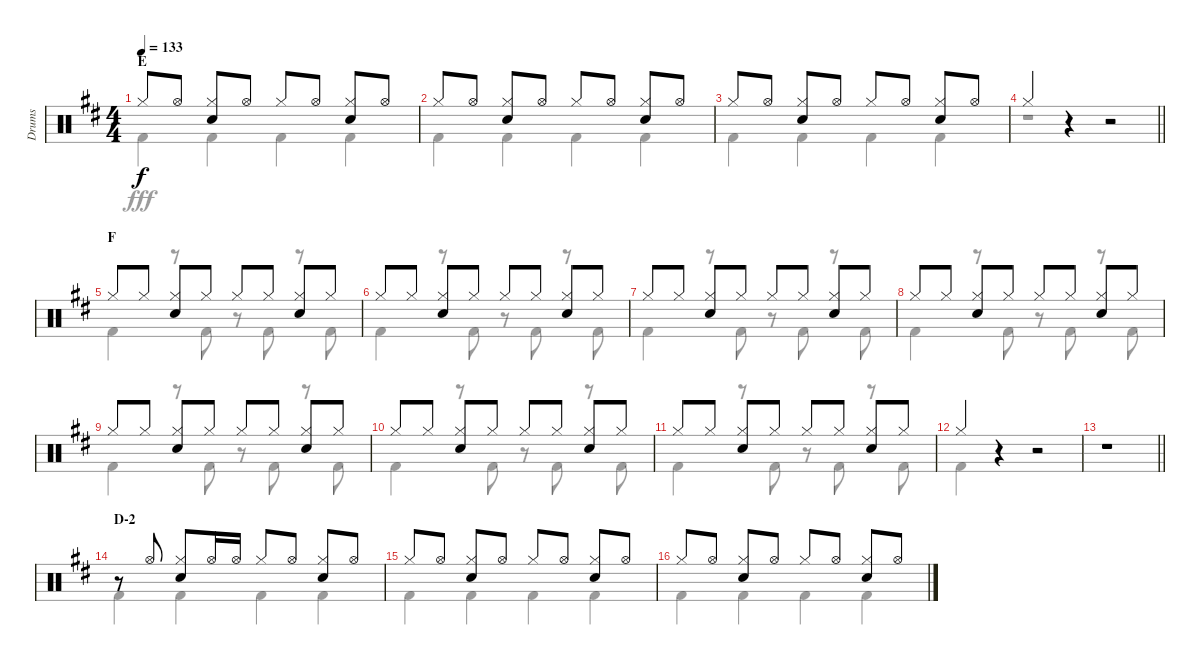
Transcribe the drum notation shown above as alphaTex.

\track ("Drums" "Drums") {instrument percussion}
\staff {score}
\articulation defaults
\voice
\ts (4 4)
\section ("" "E")
\tempo 133
\clef neutral
\ks d "Hi-Hat (closed)".8{dy f} "Hi-Hat (open)".8
("Hi-Hat (closed)" "Snare (hit) 2").8 "Hi-Hat (open)".8 "Hi-Hat (closed)".8 "Hi-Hat (open)".8 ("Hi-Hat (closed)" "Snare (hit) 2").8 "Hi-Hat (open)".8 |
"Hi-Hat (closed)".8 "Hi-Hat (open)".8 ("Hi-Hat (closed)" "Snare (hit) 2").8 "Hi-Hat (open)".8 "Hi-Hat (closed)".8 "Hi-Hat (open)".8 ("Hi-Hat (closed)" "Snare (hit) 2").8 "Hi-Hat (open)".8 |
"Hi-Hat (closed)".8 "Hi-Hat (open)".8 ("Hi-Hat (closed)" "Snare (hit) 2").8 "Hi-Hat (open)".8 "Hi-Hat (closed)".8 "Hi-Hat (open)".8 ("Hi-Hat (closed)" "Snare (hit) 2").8 "Hi-Hat (open)".8 |
\barLineRight lightlight "Hi-Hat (closed)".4
r.4 r.2 |
\section ("" "F")
"Hi-Hat (closed)".8 "Hi-Hat (closed)".8 ("Hi-Hat (closed)" "Snare (hit) 2").8 "Hi-Hat (closed)".8 "Hi-Hat (closed)".8 "Hi-Hat (closed)".8 ("Hi-Hat (closed)" "Snare (hit) 2").8 "Hi-Hat (closed)".8 |
"Hi-Hat (closed)".8 "Hi-Hat (closed)".8 ("Hi-Hat (closed)" "Snare (hit) 2").8 "Hi-Hat (closed)".8 "Hi-Hat (closed)".8 "Hi-Hat (closed)".8 ("Hi-Hat (closed)" "Snare (hit) 2").8 "Hi-Hat (closed)".8 |
"Hi-Hat (closed)".8 "Hi-Hat (closed)".8 ("Hi-Hat (closed)" "Snare (hit) 2").8 "Hi-Hat (closed)".8 "Hi-Hat (closed)".8 "Hi-Hat (closed)".8 ("Hi-Hat (closed)" "Snare (hit) 2").8 "Hi-Hat (closed)".8 |
"Hi-Hat (closed)".8 "Hi-Hat (closed)".8 ("Hi-Hat (closed)" "Snare (hit) 2").8 "Hi-Hat (closed)".8 "Hi-Hat (closed)".8 "Hi-Hat (closed)".8 ("Hi-Hat (closed)" "Snare (hit) 2").8 "Hi-Hat (closed)".8 |
"Hi-Hat (closed)".8 "Hi-Hat (closed)".8 ("Hi-Hat (closed)" "Snare (hit) 2").8 "Hi-Hat (closed)".8 "Hi-Hat (closed)".8 "Hi-Hat (closed)".8 ("Hi-Hat (closed)" "Snare (hit) 2").8 "Hi-Hat (closed)".8 |
"Hi-Hat (closed)".8 "Hi-Hat (closed)".8 ("Hi-Hat (closed)" "Snare (hit) 2").8 "Hi-Hat (closed)".8 "Hi-Hat (closed)".8 "Hi-Hat (closed)".8 ("Hi-Hat (closed)" "Snare (hit) 2").8 "Hi-Hat (closed)".8 |
"Hi-Hat (closed)".8 "Hi-Hat (closed)".8 ("Hi-Hat (closed)" "Snare (hit) 2").8 "Hi-Hat (closed)".8 "Hi-Hat (closed)".8 "Hi-Hat (closed)".8 ("Hi-Hat (closed)" "Snare (hit) 2").8 "Hi-Hat (closed)".8 |
"Hi-Hat (closed)".4 r.4 r.2 |
\barLineRight lightlight
r.1 |
\section ("" "D-2")
r.8 "Hi-Hat (open)".8 ("Hi-Hat (closed)" "Snare (hit) 2").8 "Hi-Hat (open)".16 "Hi-Hat (open)".16 "Hi-Hat (closed)".8 "Hi-Hat (open)".8 ("Hi-Hat (closed)" "Snare (hit) 2").8 "Hi-Hat (open)".8 |
"Hi-Hat (closed)".8 "Hi-Hat (open)".8 ("Hi-Hat (closed)" "Snare (hit) 2").8 "Hi-Hat (open)".8 "Hi-Hat (closed)".8 "Hi-Hat (open)".8 ("Hi-Hat (closed)" "Snare (hit) 2").8 "Hi-Hat (open)".8 |
"Hi-Hat (closed)".8 "Hi-Hat (open)".8 ("Hi-Hat (closed)" "Snare (hit) 2").8 "Hi-Hat (open)".8 "Hi-Hat (closed)".8 "Hi-Hat (open)".8 ("Hi-Hat (closed)" "Snare (hit) 2").8 "Hi-Hat (open)".8
\voice
\clef neutral
\ottava regular
\simile none
\ks d "Kick (hit) 2".4{dy fff} "Kick (hit) 2".4 "Kick (hit) 2".4 "Kick (hit) 2".4
|
"Kick (hit) 2".4 "Kick (hit) 2".4 "Kick (hit) 2".4 "Kick (hit) 2".4 |
"Kick (hit) 2".4 "Kick (hit) 2".4 "Kick (hit) 2".4 "Kick (hit) 2".4 |
\barLineRight lightlight
r.1 |
"Kick (hit) 2".4 r.8 "Kick (hit) 2".8 r.8 "Kick (hit) 2".8 r.8 "Kick (hit) 2".8 |
"Kick (hit) 2".4 r.8 "Kick (hit) 2".8 r.8 "Kick (hit) 2".8 r.8 "Kick (hit) 2".8 |
"Kick (hit) 2".4 r.8 "Kick (hit) 2".8 r.8 "Kick (hit) 2".8 r.8 "Kick (hit) 2".8 |
"Kick (hit) 2".4 r.8 "Kick (hit) 2".8 r.8 "Kick (hit) 2".8 r.8 "Kick (hit) 2".8 |
"Kick (hit) 2".4 r.8 "Kick (hit) 2".8 r.8 "Kick (hit) 2".8 r.8 "Kick (hit) 2".8 |
"Kick (hit) 2".4 r.8 "Kick (hit) 2".8 r.8 "Kick (hit) 2".8 r.8 "Kick (hit) 2".8 |
"Kick (hit) 2".4 r.8 "Kick (hit) 2".8 r.8 "Kick (hit) 2".8 r.8 "Kick (hit) 2".8 |
"Kick (hit) 2".4 r.4 r.2 |
\barLineRight lightlight
r.1 |
"Kick (hit) 2".4 "Kick (hit) 2".4 "Kick (hit) 2".4 "Kick (hit) 2".4 |
"Kick (hit) 2".4 "Kick (hit) 2".4 "Kick (hit) 2".4 "Kick (hit) 2".4 |
"Kick (hit) 2".4 "Kick (hit) 2".4 "Kick (hit) 2".4 "Kick (hit) 2".4
